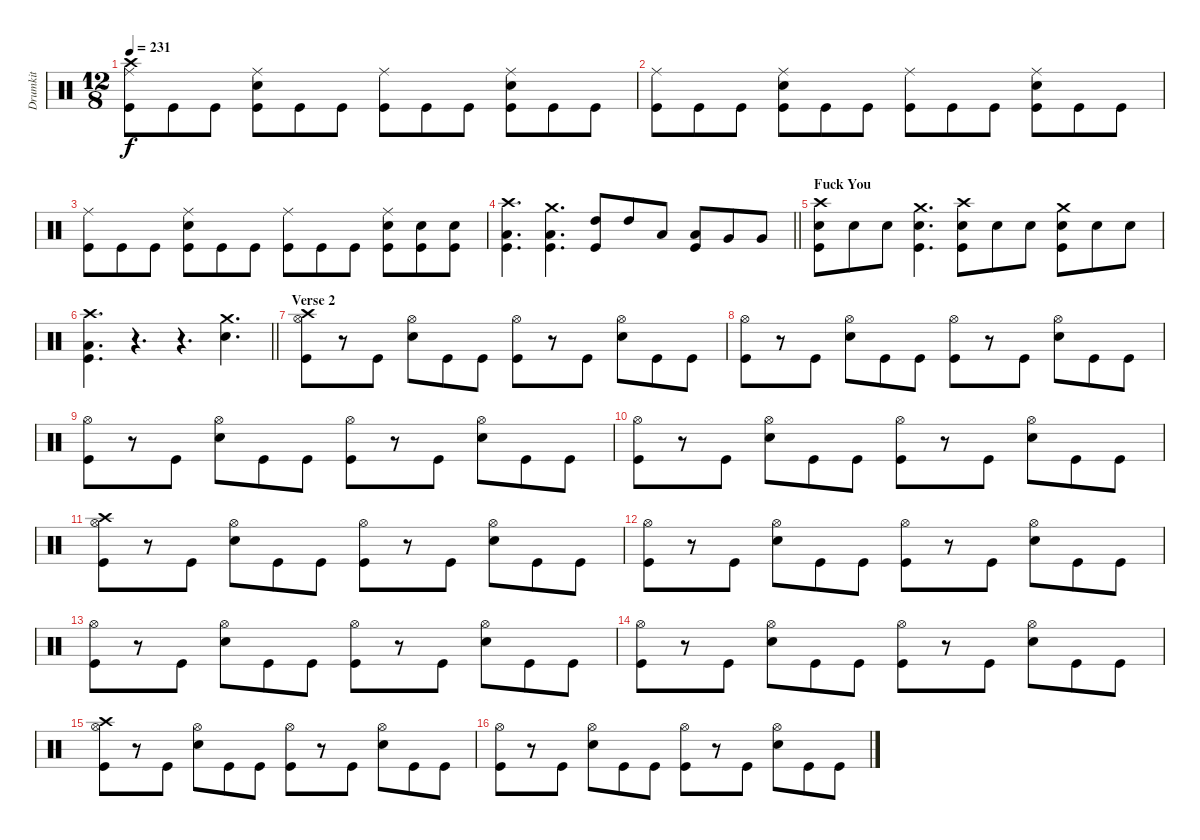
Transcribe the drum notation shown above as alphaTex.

\track ("Drumkit" "Drumkit") {instrument percussion}
\staff {score}
\articulation defaults
\ts (12 8)
\tempo 231
\clef neutral
\ks c
("Crash high (hit)" "Ride (middle)" "Kick (hit)").8{dy f} "Kick (hit)".8 "Kick (hit)".8 ("Ride (middle)" "Snare (hit) 2" "Kick (hit)").8 "Kick (hit)".8 "Kick (hit)".8 ("Ride (middle)" "Kick (hit)").8 "Kick (hit)".8 "Kick (hit)".8 ("Ride (middle)" "Snare (hit) 2" "Kick (hit)").8 "Kick (hit)".8 "Kick (hit)".8 |
("Ride (middle)" "Kick (hit)").8 "Kick (hit)".8 "Kick (hit)".8 ("Ride (middle)" "Snare (hit) 2" "Kick (hit)").8 "Kick (hit)".8 "Kick (hit)".8 ("Ride (middle)" "Kick (hit)").8 "Kick (hit)".8 "Kick (hit)".8 ("Ride (middle)" "Snare (hit) 2" "Kick (hit)").8 "Kick (hit)".8 "Kick (hit)".8 |
("Ride (middle)" "Kick (hit)").8 "Kick (hit)".8 "Kick (hit)".8 ("Ride (middle)" "Snare (hit) 2" "Kick (hit)").8 "Kick (hit)".8 "Kick (hit)".8 ("Ride (middle)" "Kick (hit)").8 "Kick (hit)".8 "Kick (hit)".8 ("Ride (middle)" "Snare (hit) 2" "Kick (hit)").8 ("Snare (hit) 2" "Kick (hit)").8 ("Snare (hit) 2" "Kick (hit)").8 |
\barLineRight lightlight
("Crash high (hit)" "Low Floor Tom (hit)" "Kick (hit)").4{d} ("Crash medium (hit)" "Low Floor Tom (hit)" "Kick (hit)").4{d} ("High Tom (hit)" "Kick (hit)").8 "High Tom (hit)".8 "Low Tom (hit)".8 ("Low Tom (hit)" "Kick (hit)").8 "Very Low Tom (hit)".8 "Very Low Tom (hit)".8 |
\section ("" "Fuck You")
("Crash high (hit)" "Snare (hit) 2" "Kick (hit)").8 "Snare (hit) 2".8 "Snare (hit) 2".8 ("Crash medium (hit)" "Snare (hit) 2" "Kick (hit)").4{d} ("Crash high (hit)" "Snare (hit) 2" "Kick (hit)").8 "Snare (hit) 2".8 "Snare (hit) 2".8 ("Crash medium (hit)" "Snare (hit) 2" "Kick (hit)").8 "Snare (hit) 2".8 "Snare (hit) 2".8 |
\barLineRight lightlight
("Crash high (hit)" "Low Floor Tom (hit)" "Kick (hit)").4{d} r.4{d} r.4{d} ("Crash medium (hit)" "Snare (hit) 2").4{d} |
\section ("" "Verse 2")
("Crash high (hit)" "Hi-Hat (open)" "Kick (hit)").8 r.8 "Kick (hit)".8 ("Hi-Hat (open)" "Snare (hit) 2").8 "Kick (hit)".8 "Kick (hit)".8 ("Hi-Hat (open)" "Kick (hit)").8 r.8 "Kick (hit)".8 ("Hi-Hat (open)" "Snare (hit) 2").8 "Kick (hit)".8 "Kick (hit)".8 |
("Hi-Hat (open)" "Kick (hit)").8 r.8 "Kick (hit)".8 ("Hi-Hat (open)" "Snare (hit) 2").8 "Kick (hit)".8 "Kick (hit)".8 ("Hi-Hat (open)" "Kick (hit)").8 r.8 "Kick (hit)".8 ("Hi-Hat (open)" "Snare (hit) 2").8 "Kick (hit)".8 "Kick (hit)".8 |
("Hi-Hat (open)" "Kick (hit)").8 r.8 "Kick (hit)".8 ("Hi-Hat (open)" "Snare (hit) 2").8 "Kick (hit)".8 "Kick (hit)".8 ("Hi-Hat (open)" "Kick (hit)").8 r.8 "Kick (hit)".8 ("Hi-Hat (open)" "Snare (hit) 2").8 "Kick (hit)".8 "Kick (hit)".8 |
("Hi-Hat (open)" "Kick (hit)").8 r.8 "Kick (hit)".8 ("Hi-Hat (open)" "Snare (hit) 2").8 "Kick (hit)".8 "Kick (hit)".8 ("Hi-Hat (open)" "Kick (hit)").8 r.8 "Kick (hit)".8 ("Hi-Hat (open)" "Snare (hit) 2").8 "Kick (hit)".8 "Kick (hit)".8 |
("Crash high (hit)" "Hi-Hat (open)" "Kick (hit)").8 r.8 "Kick (hit)".8 ("Hi-Hat (open)" "Snare (hit) 2").8 "Kick (hit)".8 "Kick (hit)".8 ("Hi-Hat (open)" "Kick (hit)").8 r.8 "Kick (hit)".8 ("Hi-Hat (open)" "Snare (hit) 2").8 "Kick (hit)".8 "Kick (hit)".8 |
("Hi-Hat (open)" "Kick (hit)").8 r.8 "Kick (hit)".8 ("Hi-Hat (open)" "Snare (hit) 2").8 "Kick (hit)".8 "Kick (hit)".8 ("Hi-Hat (open)" "Kick (hit)").8 r.8 "Kick (hit)".8 ("Hi-Hat (open)" "Snare (hit) 2").8 "Kick (hit)".8 "Kick (hit)".8 |
("Hi-Hat (open)" "Kick (hit)").8 r.8 "Kick (hit)".8 ("Hi-Hat (open)" "Snare (hit) 2").8 "Kick (hit)".8 "Kick (hit)".8 ("Hi-Hat (open)" "Kick (hit)").8 r.8 "Kick (hit)".8 ("Hi-Hat (open)" "Snare (hit) 2").8 "Kick (hit)".8 "Kick (hit)".8 |
("Hi-Hat (open)" "Kick (hit)").8 r.8 "Kick (hit)".8 ("Hi-Hat (open)" "Snare (hit) 2").8 "Kick (hit)".8 "Kick (hit)".8 ("Hi-Hat (open)" "Kick (hit)").8 r.8 "Kick (hit)".8 ("Hi-Hat (open)" "Snare (hit) 2").8 "Kick (hit)".8 "Kick (hit)".8 |
("Crash high (hit)" "Hi-Hat (open)" "Kick (hit)").8 r.8 "Kick (hit)".8 ("Hi-Hat (open)" "Snare (hit) 2").8 "Kick (hit)".8 "Kick (hit)".8 ("Hi-Hat (open)" "Kick (hit)").8 r.8 "Kick (hit)".8 ("Hi-Hat (open)" "Snare (hit) 2").8 "Kick (hit)".8 "Kick (hit)".8 |
("Hi-Hat (open)" "Kick (hit)").8 r.8 "Kick (hit)".8 ("Hi-Hat (open)" "Snare (hit) 2").8 "Kick (hit)".8 "Kick (hit)".8 ("Hi-Hat (open)" "Kick (hit)").8 r.8 "Kick (hit)".8 ("Hi-Hat (open)" "Snare (hit) 2").8 "Kick (hit)".8 "Kick (hit)".8
